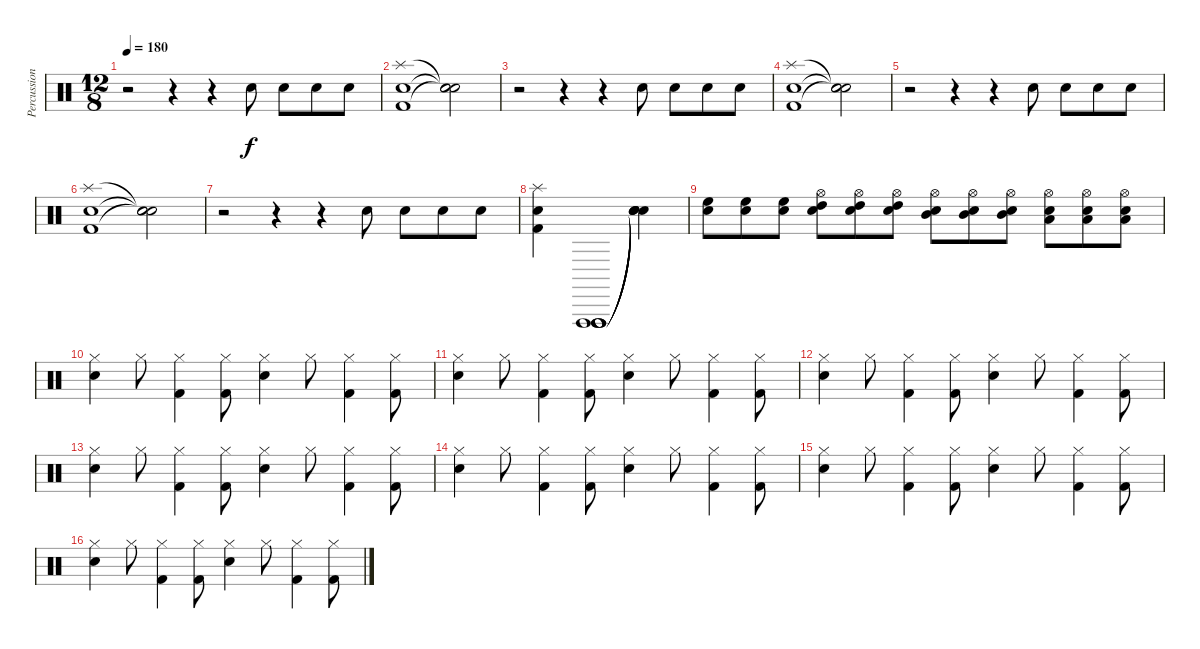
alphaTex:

\track ("Percussion" "Percussion") {instrument percussion}
\staff {score}
\articulation defaults
\ts (12 8)
\tempo 180
\clef neutral
\ks c
r.2{dy f} r.4 r.4 "Snare (hit) 2".8 "Snare (hit) 2".8 "Snare (hit) 2".8 "Snare (hit) 2".8 |
("Snare (hit) 2" "Kick (hit) 2" "Splash (hit)").1 ("Snare (hit)"{t} "Snare (hit)"{t} "Snare (hit)"{t}).2 |
r.2 r.4 r.4 "Snare (hit) 2".8 "Snare (hit) 2".8 "Snare (hit) 2".8 "Snare (hit) 2".8 |
("Snare (hit) 2" "Kick (hit) 2" "Splash (hit)").1 ("Snare (hit)"{t} "Snare (hit)"{t} "Snare (hit)"{t}).2 |
r.2 r.4 r.4 "Snare (hit) 2".8 "Snare (hit) 2".8 "Snare (hit) 2".8 "Snare (hit) 2".8 |
("Snare (hit) 2" "Kick (hit) 2" "Splash (hit)").1 ("Snare (hit)"{t} "Snare (hit)"{t} "Snare (hit)"{t}).2 |
r.2 r.4 r.4 "Snare (hit) 2".8 "Snare (hit) 2".8 "Snare (hit) 2".8 "Snare (hit) 2".8 |
("Snare (hit) 2" "Kick (hit) 2" "Splash (hit)").4 ("Vibraslap (hit)" "Vibraslap (hit)" "Vibraslap (hit)" "Vibraslap (hit)").1 ("Snare (hit)"{t} "Snare (hit)"{t} "Snare (hit)"{t} "Snare (hit)"{t}).4 |
("Snare (hit) 2" "High Floor Tom (hit)").8 ("Snare (hit) 2" "High Floor Tom (hit)").8 ("Snare (hit) 2" "High Floor Tom (hit)").8 ("Snare (hit) 2" "Hi-Hat (open)" "High Tom (hit)").8 ("Snare (hit) 2" "Hi-Hat (open)" "High Tom (hit)").8 ("Snare (hit) 2" "Hi-Hat (open)" "High Tom (hit)").8 ("Snare (hit) 2" "Hi-Hat (open)" "Mid Tom (hit)").8 ("Snare (hit) 2" "Hi-Hat (open)" "Mid Tom (hit)").8 ("Snare (hit) 2" "Hi-Hat (open)" "Mid Tom (hit)").8 ("Snare (hit) 2" "Hi-Hat (open)" "Low Tom (hit)").8 ("Snare (hit) 2" "Hi-Hat (open)" "Low Tom (hit)").8 ("Snare (hit) 2" "Hi-Hat (open)" "Low Floor Tom (hit)").8 |
("Snare (hit) 2" "Hi-Hat (closed)").4 "Hi-Hat (closed)".8 ("Kick (hit) 2" "Hi-Hat (closed)").4 ("Kick (hit) 2" "Hi-Hat (closed)").8 ("Snare (hit) 2" "Hi-Hat (closed)").4 "Hi-Hat (closed)".8 ("Kick (hit) 2" "Hi-Hat (closed)").4 ("Kick (hit) 2" "Hi-Hat (closed)").8 |
("Snare (hit) 2" "Hi-Hat (closed)").4 "Hi-Hat (closed)".8 ("Kick (hit) 2" "Hi-Hat (closed)").4 ("Kick (hit) 2" "Hi-Hat (closed)").8 ("Snare (hit) 2" "Hi-Hat (closed)").4 "Hi-Hat (closed)".8 ("Kick (hit) 2" "Hi-Hat (closed)").4 ("Kick (hit) 2" "Hi-Hat (closed)").8 |
("Snare (hit) 2" "Hi-Hat (closed)").4 "Hi-Hat (closed)".8 ("Kick (hit) 2" "Hi-Hat (closed)").4 ("Kick (hit) 2" "Hi-Hat (closed)").8 ("Snare (hit) 2" "Hi-Hat (closed)").4 "Hi-Hat (closed)".8 ("Kick (hit) 2" "Hi-Hat (closed)").4 ("Kick (hit) 2" "Hi-Hat (closed)").8 |
("Snare (hit) 2" "Hi-Hat (closed)").4 "Hi-Hat (closed)".8 ("Kick (hit) 2" "Hi-Hat (closed)").4 ("Kick (hit) 2" "Hi-Hat (closed)").8 ("Snare (hit) 2" "Hi-Hat (closed)").4 "Hi-Hat (closed)".8 ("Kick (hit) 2" "Hi-Hat (closed)").4 ("Kick (hit) 2" "Hi-Hat (closed)").8 |
("Snare (hit) 2" "Hi-Hat (closed)").4 "Hi-Hat (closed)".8 ("Kick (hit) 2" "Hi-Hat (closed)").4 ("Kick (hit) 2" "Hi-Hat (closed)").8 ("Snare (hit) 2" "Hi-Hat (closed)").4 "Hi-Hat (closed)".8 ("Kick (hit) 2" "Hi-Hat (closed)").4 ("Kick (hit) 2" "Hi-Hat (closed)").8 |
("Snare (hit) 2" "Hi-Hat (closed)").4 "Hi-Hat (closed)".8 ("Kick (hit) 2" "Hi-Hat (closed)").4 ("Kick (hit) 2" "Hi-Hat (closed)").8 ("Snare (hit) 2" "Hi-Hat (closed)").4 "Hi-Hat (closed)".8 ("Kick (hit) 2" "Hi-Hat (closed)").4 ("Kick (hit) 2" "Hi-Hat (closed)").8 |
("Snare (hit) 2" "Hi-Hat (closed)").4 "Hi-Hat (closed)".8 ("Kick (hit) 2" "Hi-Hat (closed)").4 ("Kick (hit) 2" "Hi-Hat (closed)").8 ("Snare (hit) 2" "Hi-Hat (closed)").4 "Hi-Hat (closed)".8 ("Kick (hit) 2" "Hi-Hat (closed)").4 ("Kick (hit) 2" "Hi-Hat (closed)").8
